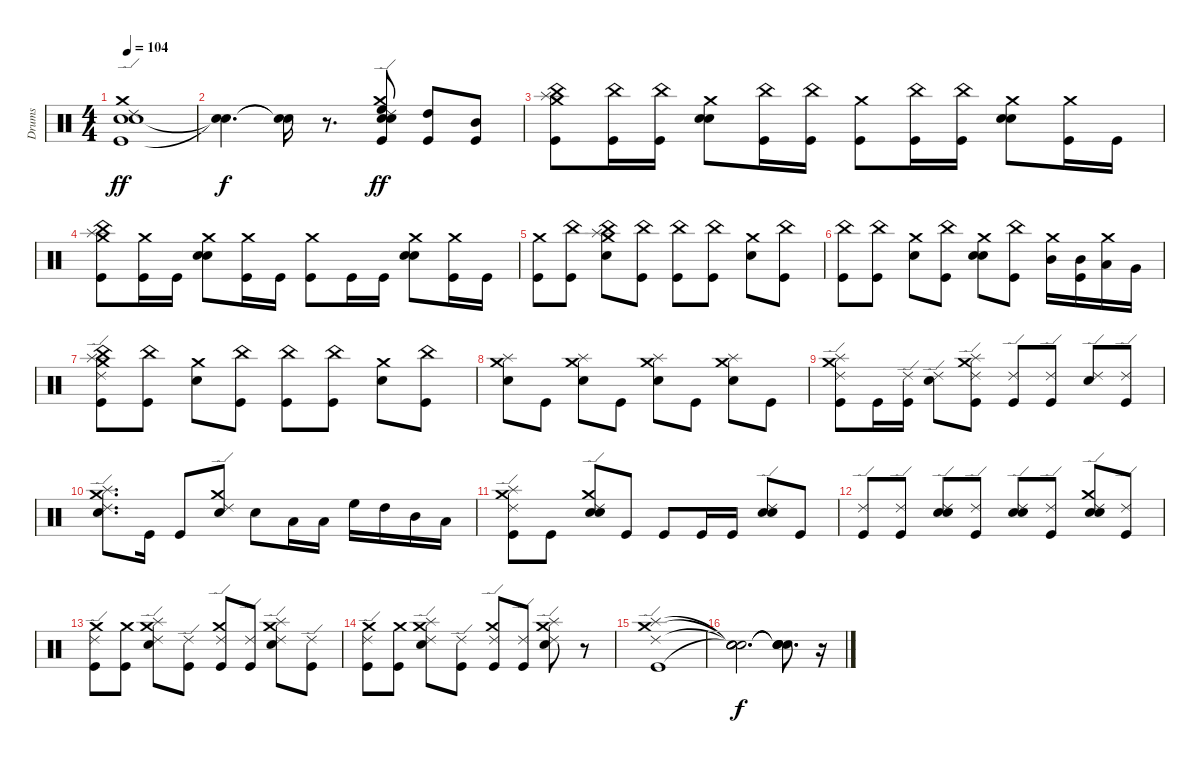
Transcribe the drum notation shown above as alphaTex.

\track ("Drums" "Drums") {instrument percussion}
\staff {score}
\articulation defaults
\ts (4 4)
\tempo 104
\clef neutral
\ks c
("Kick (hit)" "Snare (hit) 2" "Electric Snare (hit)" "Crash medium (hit)" "Ride (edge) 2").1{dy ff} |
("Snare (hit)"{t} "Snare (hit)"{t}).4{d dy f} ("Snare (hit)"{t} "Snare (hit)"{t}).16 r.8{d} ("Kick (hit)" "Snare (hit) 2" "Electric Snare (hit)" "High Floor Tom (hit)" "Crash medium (hit)" "Ride (edge) 2").8{dy ff} ("Kick (hit)" "High Tom (hit)").8 ("Kick (hit)" "Mid Tom (hit)").8 |
("Kick (hit)" "China (hit)" "Splash (hit)" "Crash medium (hit)").8 ("Kick (hit)" "China (hit)").16 ("Kick (hit)" "China (hit)").16 ("Snare (hit) 2" "Electric Snare (hit)" "Crash medium (hit)").8 ("Kick (hit)" "China (hit)").16 ("Kick (hit)" "China (hit)").16 ("Kick (hit)" "Crash medium (hit)").8 ("Kick (hit)" "China (hit)").16 ("Kick (hit)" "China (hit)").16 ("Snare (hit) 2" "Electric Snare (hit)" "Crash medium (hit)").8 ("Kick (hit)" "Crash medium (hit)").16 "Kick (hit)".16 |
("Kick (hit)" "China (hit)" "Splash (hit)" "Crash medium (hit)").8 ("Kick (hit)" "Crash medium (hit)").16 "Kick (hit)".16 ("Snare (hit) 2" "Electric Snare (hit)" "Crash medium (hit)").8 ("Kick (hit)" "Crash medium (hit)").16 "Kick (hit)".16 ("Kick (hit)" "Crash medium (hit)").8 "Kick (hit)".16 "Kick (hit)".16 ("Snare (hit) 2" "Electric Snare (hit)" "Crash medium (hit)").8 ("Kick (hit)" "Crash medium (hit)").16 "Kick (hit)".16 |
("Kick (hit)" "Crash medium (hit)").8 ("Kick (hit)" "China (hit)").8 ("Electric Snare (hit)" "China (hit)" "Splash (hit)" "Crash medium (hit)").8 ("Kick (hit)" "China (hit)").8 ("Kick (hit)" "China (hit)").8 ("Kick (hit)" "China (hit)").8 ("Electric Snare (hit)" "Crash medium (hit)").8 ("Kick (hit)" "China (hit)").8 |
("Kick (hit)" "China (hit)").8 ("Kick (hit)" "China (hit)").8 ("Electric Snare (hit)" "Crash medium (hit)").8 ("Kick (hit)" "China (hit)").8 ("Snare (hit) 2" "Electric Snare (hit)" "Crash medium (hit)").8 ("Kick (hit)" "China (hit)").8 ("Mid Tom (hit)" "Crash medium (hit)").16 ("Kick (hit)" "Mid Tom (hit)").16 ("Low Tom (hit)" "Crash medium (hit)").16 "Very Low Tom (hit)".16 |
("Kick (hit)" "China (hit)" "Splash (hit)" "Crash medium (hit)" "Ride (edge) 2").8 ("Kick (hit)" "China (hit)").8 ("Electric Snare (hit)" "Crash medium (hit)").8 ("Kick (hit)" "China (hit)").8 ("Kick (hit)" "China (hit)").8 ("Kick (hit)" "China (hit)").8 ("Electric Snare (hit)" "Crash medium (hit)").8 ("Kick (hit)" "China (hit)").8 |
("Electric Snare (hit)" "Splash (hit)" "Crash medium (hit)").8 "Kick (hit)".8 ("Electric Snare (hit)" "Splash (hit)" "Crash medium (hit)").8 "Kick (hit)".8 ("Electric Snare (hit)" "Splash (hit)" "Crash medium (hit)").8 "Kick (hit)".8 ("Electric Snare (hit)" "Splash (hit)" "Crash medium (hit)").8 "Kick (hit)".8 |
("Kick (hit)" "Splash (hit)" "Crash medium (hit)" "Ride (edge) 2").8 "Kick (hit)".16 ("Kick (hit)" "Ride (edge) 2").16 ("Electric Snare (hit)" "Ride (edge) 2").8 ("Kick (hit)" "Splash (hit)" "Crash medium (hit)" "Ride (edge) 2").8 ("Kick (hit)" "Ride (edge) 2").8 ("Kick (hit)" "Ride (edge) 2").8 ("Electric Snare (hit)" "Ride (edge) 2").8 ("Kick (hit)" "Ride (edge) 2").8 |
("Electric Snare (hit)" "Splash (hit)" "Crash medium (hit)" "Ride (edge) 2").8{d} "Kick (hit)".16 "Kick (hit)".8 ("Electric Snare (hit)" "Crash medium (hit)" "Ride (edge) 2").8 "Electric Snare (hit)".8 "Low Tom (hit)".16 "Low Tom (hit)".16 "High Floor Tom (hit)".16 "High Tom (hit)".16 "Mid Tom (hit)".16 "Low Tom (hit)".16 |
("Kick (hit)" "Splash (hit)" "Crash medium (hit)" "Ride (edge) 2").8 "Kick (hit)".8 ("Snare (hit) 2" "Electric Snare (hit)" "Crash medium (hit)" "Ride (edge) 2").8 "Kick (hit)".8 "Kick (hit)".8 "Kick (hit)".16 "Kick (hit)".16 ("Snare (hit) 2" "Electric Snare (hit)" "Ride (edge) 2").8 "Kick (hit)".8 |
("Kick (hit)" "Ride (edge) 2").8 ("Kick (hit)" "Ride (edge) 2").8 ("Snare (hit) 2" "Electric Snare (hit)" "Ride (edge) 2").8 ("Kick (hit)" "Ride (edge) 2").8 ("Snare (hit) 2" "Electric Snare (hit)" "Ride (edge) 2").8 ("Kick (hit)" "Ride (edge) 2").8 ("Snare (hit) 2" "Electric Snare (hit)" "Crash medium (hit)" "Ride (edge) 2").8 ("Kick (hit)" "Ride (edge) 2").8 |
("Kick (hit)" "Crash medium (hit)" "Ride (edge) 2").8 ("Kick (hit)" "Crash medium (hit)").8 ("Electric Snare (hit)" "Splash (hit)" "Crash medium (hit)" "Ride (edge) 2").8 ("Kick (hit)" "Ride (edge) 2").8 ("Kick (hit)" "Crash medium (hit)" "Ride (edge) 2").8 ("Kick (hit)" "Ride (edge) 2").8 ("Electric Snare (hit)" "Splash (hit)" "Crash medium (hit)" "Ride (edge) 2").8 ("Kick (hit)" "Ride (edge) 2").8 |
("Kick (hit)" "Crash medium (hit)" "Ride (edge) 2").8 ("Kick (hit)" "Crash medium (hit)").8 ("Electric Snare (hit)" "Splash (hit)" "Crash medium (hit)" "Ride (edge) 2").8 ("Kick (hit)" "Ride (edge) 2").8 ("Kick (hit)" "Crash medium (hit)" "Ride (edge) 2").8 ("Kick (hit)" "Ride (edge) 2").8 ("Electric Snare (hit)" "Splash (hit)" "Crash medium (hit)" "Ride (edge) 2").8 r.8 |
("Kick (hit)" "Splash (hit)" "Crash medium (hit)" "Ride (edge) 2").1 |
("Snare (hit)"{t} "Snare (hit)"{t} "Snare (hit)"{t} "Snare (hit)"{t}).2{d dy f} ("Snare (hit)"{t} "Snare (hit)"{t} "Snare (hit)"{t} "Snare (hit)"{t}).8{d} r.16
